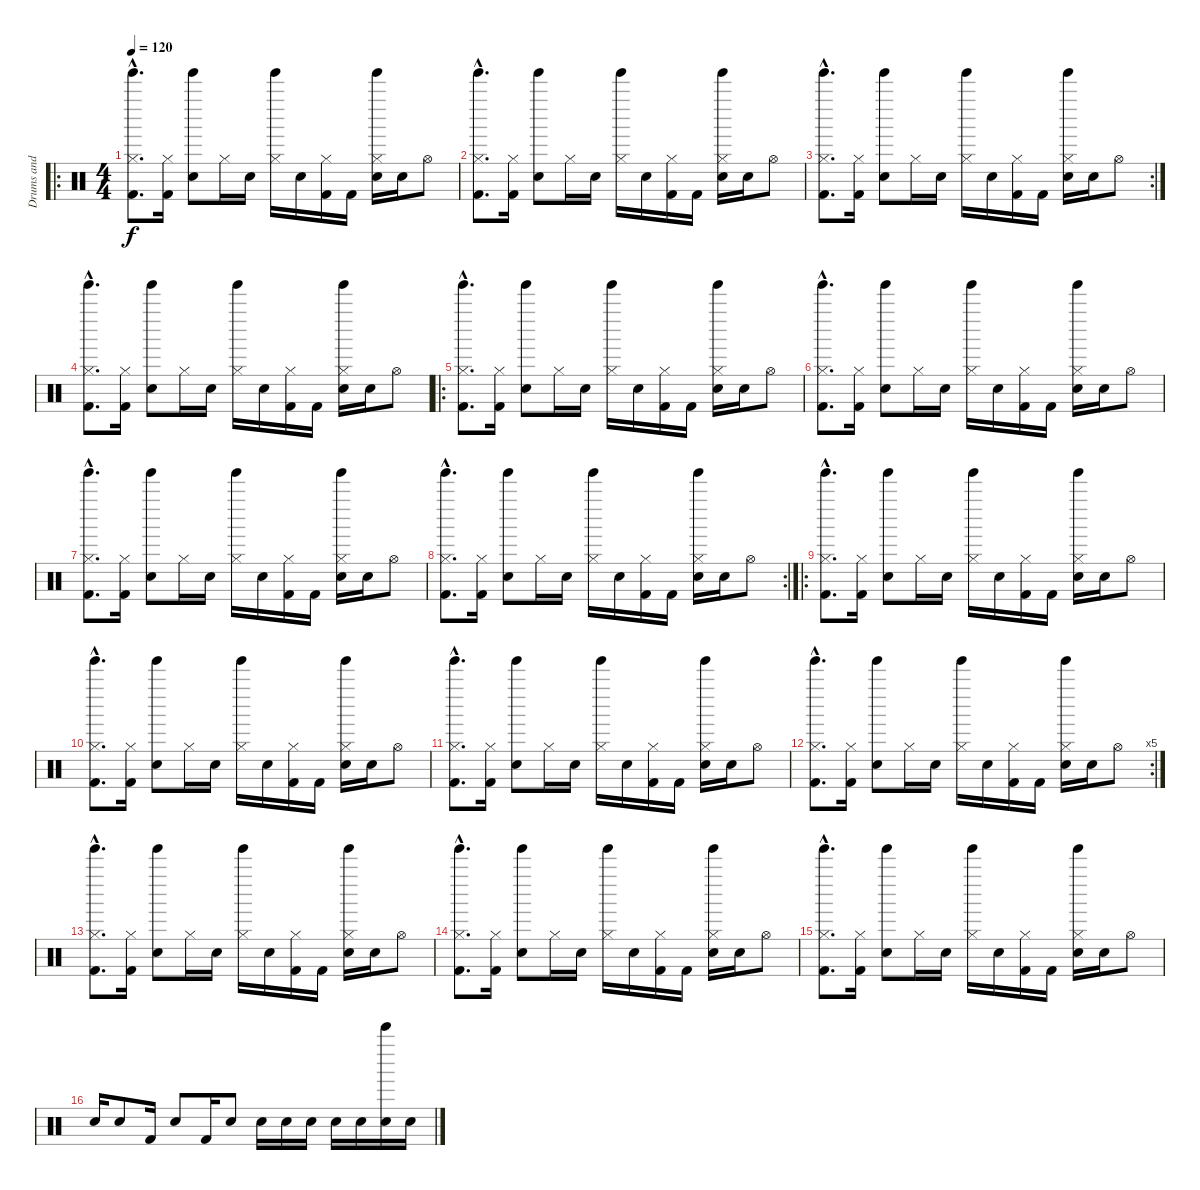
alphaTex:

\track ("Drums and Percussion" "Drums and ") {instrument percussion}
\staff {score}
\articulation defaults
\ro
\ts (4 4)
\tempo 120
\clef neutral
\ks c
("Kick (hit) 2"{hac} "Hi-Hat (closed)"{hac} "Tinkle Bell (hit)"{hac}).8{d dy f} ("Kick (hit) 2" "Hi-Hat (closed)").16 ("Electric Snare (hit)" "Tinkle Bell (hit)").8 "Hi-Hat (closed)".16 "Electric Snare (hit)".16 ("Hi-Hat (closed)" "Tinkle Bell (hit)").16 "Electric Snare (hit)".16 ("Kick (hit) 2" "Hi-Hat (closed)").16 "Kick (hit) 2".16 ("Electric Snare (hit)" "Hi-Hat (closed)" "Tinkle Bell (hit)").16 "Electric Snare (hit)".16 "Hi-Hat (open)".8 |
("Kick (hit) 2"{hac} "Hi-Hat (closed)"{hac} "Tinkle Bell (hit)"{hac}).8{d} ("Kick (hit) 2" "Hi-Hat (closed)").16 ("Electric Snare (hit)" "Tinkle Bell (hit)").8 "Hi-Hat (closed)".16 "Electric Snare (hit)".16 ("Hi-Hat (closed)" "Tinkle Bell (hit)").16 "Electric Snare (hit)".16 ("Kick (hit) 2" "Hi-Hat (closed)").16 "Kick (hit) 2".16 ("Electric Snare (hit)" "Hi-Hat (closed)" "Tinkle Bell (hit)").16 "Electric Snare (hit)".16 "Hi-Hat (open)".8 |
\rc 2
("Kick (hit) 2"{hac} "Hi-Hat (closed)"{hac} "Tinkle Bell (hit)"{hac}).8{d} ("Kick (hit) 2" "Hi-Hat (closed)").16 ("Electric Snare (hit)" "Tinkle Bell (hit)").8 "Hi-Hat (closed)".16 "Electric Snare (hit)".16 ("Hi-Hat (closed)" "Tinkle Bell (hit)").16 "Electric Snare (hit)".16 ("Kick (hit) 2" "Hi-Hat (closed)").16 "Kick (hit) 2".16 ("Electric Snare (hit)" "Hi-Hat (closed)" "Tinkle Bell (hit)").16 "Electric Snare (hit)".16 "Hi-Hat (open)".8 |
("Kick (hit) 2"{hac} "Hi-Hat (closed)"{hac} "Tinkle Bell (hit)"{hac}).8{d} ("Kick (hit) 2" "Hi-Hat (closed)").16 ("Electric Snare (hit)" "Tinkle Bell (hit)").8 "Hi-Hat (closed)".16 "Electric Snare (hit)".16 ("Hi-Hat (closed)" "Tinkle Bell (hit)").16 "Electric Snare (hit)".16 ("Kick (hit) 2" "Hi-Hat (closed)").16 "Kick (hit) 2".16 ("Electric Snare (hit)" "Hi-Hat (closed)" "Tinkle Bell (hit)").16 "Electric Snare (hit)".16 "Hi-Hat (open)".8 |
\ro
("Kick (hit) 2"{hac} "Hi-Hat (closed)"{hac} "Tinkle Bell (hit)"{hac}).8{d} ("Kick (hit) 2" "Hi-Hat (closed)").16 ("Electric Snare (hit)" "Tinkle Bell (hit)").8 "Hi-Hat (closed)".16 "Electric Snare (hit)".16 ("Hi-Hat (closed)" "Tinkle Bell (hit)").16 "Electric Snare (hit)".16 ("Kick (hit) 2" "Hi-Hat (closed)").16 "Kick (hit) 2".16 ("Electric Snare (hit)" "Hi-Hat (closed)" "Tinkle Bell (hit)").16 "Electric Snare (hit)".16 "Hi-Hat (open)".8 |
("Kick (hit) 2"{hac} "Hi-Hat (closed)"{hac} "Tinkle Bell (hit)"{hac}).8{d} ("Kick (hit) 2" "Hi-Hat (closed)").16 ("Electric Snare (hit)" "Tinkle Bell (hit)").8 "Hi-Hat (closed)".16 "Electric Snare (hit)".16 ("Hi-Hat (closed)" "Tinkle Bell (hit)").16 "Electric Snare (hit)".16 ("Kick (hit) 2" "Hi-Hat (closed)").16 "Kick (hit) 2".16 ("Electric Snare (hit)" "Hi-Hat (closed)" "Tinkle Bell (hit)").16 "Electric Snare (hit)".16 "Hi-Hat (open)".8 |
("Kick (hit) 2"{hac} "Hi-Hat (closed)"{hac} "Tinkle Bell (hit)"{hac}).8{d} ("Kick (hit) 2" "Hi-Hat (closed)").16 ("Electric Snare (hit)" "Tinkle Bell (hit)").8 "Hi-Hat (closed)".16 "Electric Snare (hit)".16 ("Hi-Hat (closed)" "Tinkle Bell (hit)").16 "Electric Snare (hit)".16 ("Kick (hit) 2" "Hi-Hat (closed)").16 "Kick (hit) 2".16 ("Electric Snare (hit)" "Hi-Hat (closed)" "Tinkle Bell (hit)").16 "Electric Snare (hit)".16 "Hi-Hat (open)".8 |
\rc 2
("Kick (hit) 2"{hac} "Hi-Hat (closed)"{hac} "Tinkle Bell (hit)"{hac}).8{d} ("Kick (hit) 2" "Hi-Hat (closed)").16 ("Electric Snare (hit)" "Tinkle Bell (hit)").8 "Hi-Hat (closed)".16 "Electric Snare (hit)".16 ("Hi-Hat (closed)" "Tinkle Bell (hit)").16 "Electric Snare (hit)".16 ("Kick (hit) 2" "Hi-Hat (closed)").16 "Kick (hit) 2".16 ("Electric Snare (hit)" "Hi-Hat (closed)" "Tinkle Bell (hit)").16 "Electric Snare (hit)".16 "Hi-Hat (open)".8 |
\ro
("Kick (hit) 2"{hac} "Hi-Hat (closed)"{hac} "Tinkle Bell (hit)"{hac}).8{d} ("Kick (hit) 2" "Hi-Hat (closed)").16 ("Electric Snare (hit)" "Tinkle Bell (hit)").8 "Hi-Hat (closed)".16 "Electric Snare (hit)".16 ("Hi-Hat (closed)" "Tinkle Bell (hit)").16 "Electric Snare (hit)".16 ("Kick (hit) 2" "Hi-Hat (closed)").16 "Kick (hit) 2".16 ("Electric Snare (hit)" "Hi-Hat (closed)" "Tinkle Bell (hit)").16 "Electric Snare (hit)".16 "Hi-Hat (open)".8 |
("Kick (hit) 2"{hac} "Hi-Hat (closed)"{hac} "Tinkle Bell (hit)"{hac}).8{d} ("Kick (hit) 2" "Hi-Hat (closed)").16 ("Electric Snare (hit)" "Tinkle Bell (hit)").8 "Hi-Hat (closed)".16 "Electric Snare (hit)".16 ("Hi-Hat (closed)" "Tinkle Bell (hit)").16 "Electric Snare (hit)".16 ("Kick (hit) 2" "Hi-Hat (closed)").16 "Kick (hit) 2".16 ("Electric Snare (hit)" "Hi-Hat (closed)" "Tinkle Bell (hit)").16 "Electric Snare (hit)".16 "Hi-Hat (open)".8 |
("Kick (hit) 2"{hac} "Hi-Hat (closed)"{hac} "Tinkle Bell (hit)"{hac}).8{d} ("Kick (hit) 2" "Hi-Hat (closed)").16 ("Electric Snare (hit)" "Tinkle Bell (hit)").8 "Hi-Hat (closed)".16 "Electric Snare (hit)".16 ("Hi-Hat (closed)" "Tinkle Bell (hit)").16 "Electric Snare (hit)".16 ("Kick (hit) 2" "Hi-Hat (closed)").16 "Kick (hit) 2".16 ("Electric Snare (hit)" "Hi-Hat (closed)" "Tinkle Bell (hit)").16 "Electric Snare (hit)".16 "Hi-Hat (open)".8 |
\rc 5
("Kick (hit) 2"{hac} "Hi-Hat (closed)"{hac} "Tinkle Bell (hit)"{hac}).8{d} ("Kick (hit) 2" "Hi-Hat (closed)").16 ("Electric Snare (hit)" "Tinkle Bell (hit)").8 "Hi-Hat (closed)".16 "Electric Snare (hit)".16 ("Hi-Hat (closed)" "Tinkle Bell (hit)").16 "Electric Snare (hit)".16 ("Kick (hit) 2" "Hi-Hat (closed)").16 "Kick (hit) 2".16 ("Electric Snare (hit)" "Hi-Hat (closed)" "Tinkle Bell (hit)").16 "Electric Snare (hit)".16 "Hi-Hat (open)".8 |
("Kick (hit) 2"{hac} "Hi-Hat (closed)"{hac} "Tinkle Bell (hit)"{hac}).8{d} ("Kick (hit) 2" "Hi-Hat (closed)").16 ("Electric Snare (hit)" "Tinkle Bell (hit)").8 "Hi-Hat (closed)".16 "Electric Snare (hit)".16 ("Hi-Hat (closed)" "Tinkle Bell (hit)").16 "Electric Snare (hit)".16 ("Kick (hit) 2" "Hi-Hat (closed)").16 "Kick (hit) 2".16 ("Electric Snare (hit)" "Hi-Hat (closed)" "Tinkle Bell (hit)").16 "Electric Snare (hit)".16 "Hi-Hat (open)".8 |
("Kick (hit) 2"{hac} "Hi-Hat (closed)"{hac} "Tinkle Bell (hit)"{hac}).8{d} ("Kick (hit) 2" "Hi-Hat (closed)").16 ("Electric Snare (hit)" "Tinkle Bell (hit)").8 "Hi-Hat (closed)".16 "Electric Snare (hit)".16 ("Hi-Hat (closed)" "Tinkle Bell (hit)").16 "Electric Snare (hit)".16 ("Kick (hit) 2" "Hi-Hat (closed)").16 "Kick (hit) 2".16 ("Electric Snare (hit)" "Hi-Hat (closed)" "Tinkle Bell (hit)").16 "Electric Snare (hit)".16 "Hi-Hat (open)".8 |
("Kick (hit) 2"{hac} "Hi-Hat (closed)"{hac} "Tinkle Bell (hit)"{hac}).8{d} ("Kick (hit) 2" "Hi-Hat (closed)").16 ("Electric Snare (hit)" "Tinkle Bell (hit)").8 "Hi-Hat (closed)".16 "Electric Snare (hit)".16 ("Hi-Hat (closed)" "Tinkle Bell (hit)").16 "Electric Snare (hit)".16 ("Kick (hit) 2" "Hi-Hat (closed)").16 "Kick (hit) 2".16 ("Electric Snare (hit)" "Hi-Hat (closed)" "Tinkle Bell (hit)").16 "Electric Snare (hit)".16 "Hi-Hat (open)".8 |
"Electric Snare (hit)".16 "Electric Snare (hit)".8 "Kick (hit) 2".16 "Electric Snare (hit)".8 "Kick (hit) 2".16 "Electric Snare (hit)".8 "Electric Snare (hit)".16 "Electric Snare (hit)".16 "Electric Snare (hit)".16 "Electric Snare (hit)".16 "Electric Snare (hit)".16 ("Electric Snare (hit)" "Bell Tree (hit)").16 "Electric Snare (hit)".16
